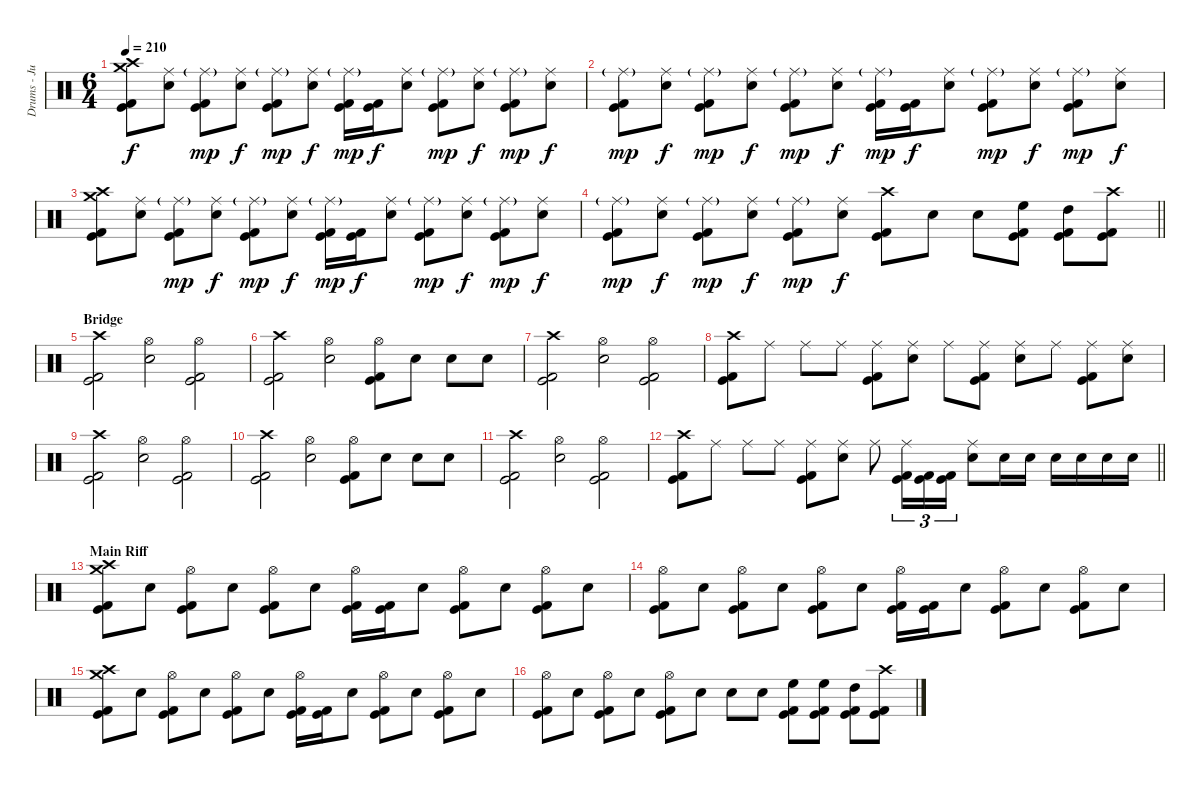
\track ("Drums - Justin Foley" "Drums - Ju") {instrument percussion}
\staff {score}
\articulation defaults
\ts (6 4)
\tempo 210
\clef neutral
\ks c
("Crash high (hit)" "Kick (hit) 2" "Kick (hit)" "Crash medium (hit)").8{dy f} ("Ride (middle)" "Snare (hit) 2").8 ("Ride (middle)"{g} "Kick (hit) 2" "Kick (hit)").8{dy mp} ("Ride (middle)" "Snare (hit) 2").8{dy f} ("Ride (middle)"{g} "Kick (hit) 2" "Kick (hit)").8{dy mp} ("Ride (middle)" "Snare (hit) 2").8{dy f} ("Ride (middle)"{g} "Kick (hit) 2" "Kick (hit)").16{dy mp} ("Kick (hit) 2" "Kick (hit)").16{dy f} ("Ride (middle)" "Snare (hit) 2").8 ("Ride (middle)"{g} "Kick (hit) 2" "Kick (hit)").8{dy mp} ("Ride (middle)" "Snare (hit) 2").8{dy f} ("Ride (middle)"{g} "Kick (hit) 2" "Kick (hit)").8{dy mp} ("Ride (middle)" "Snare (hit) 2").8{dy f} |
("Ride (middle)"{g} "Kick (hit) 2" "Kick (hit)").8{dy mp} ("Ride (middle)" "Snare (hit) 2").8{dy f} ("Ride (middle)"{g} "Kick (hit) 2" "Kick (hit)").8{dy mp} ("Ride (middle)" "Snare (hit) 2").8{dy f} ("Ride (middle)"{g} "Kick (hit) 2" "Kick (hit)").8{dy mp} ("Ride (middle)" "Snare (hit) 2").8{dy f} ("Ride (middle)"{g} "Kick (hit) 2" "Kick (hit)").16{dy mp} ("Kick (hit) 2" "Kick (hit)").16{dy f} ("Ride (middle)" "Snare (hit) 2").8 ("Ride (middle)"{g} "Kick (hit) 2" "Kick (hit)").8{dy mp} ("Ride (middle)" "Snare (hit) 2").8{dy f} ("Ride (middle)"{g} "Kick (hit) 2" "Kick (hit)").8{dy mp} ("Ride (middle)" "Snare (hit) 2").8{dy f} |
("Crash high (hit)" "Kick (hit) 2" "Kick (hit)" "Crash medium (hit)").8 ("Ride (middle)" "Snare (hit) 2").8 ("Ride (middle)"{g} "Kick (hit) 2" "Kick (hit)").8{dy mp} ("Ride (middle)" "Snare (hit) 2").8{dy f} ("Ride (middle)"{g} "Kick (hit) 2" "Kick (hit)").8{dy mp} ("Ride (middle)" "Snare (hit) 2").8{dy f} ("Ride (middle)"{g} "Kick (hit) 2" "Kick (hit)").16{dy mp} ("Kick (hit) 2" "Kick (hit)").16{dy f} ("Ride (middle)" "Snare (hit) 2").8 ("Ride (middle)"{g} "Kick (hit) 2" "Kick (hit)").8{dy mp} ("Ride (middle)" "Snare (hit) 2").8{dy f} ("Ride (middle)"{g} "Kick (hit) 2" "Kick (hit)").8{dy mp} ("Ride (middle)" "Snare (hit) 2").8{dy f} |
\barLineRight lightlight
("Ride (middle)"{g} "Kick (hit) 2" "Kick (hit)").8{dy mp} ("Ride (middle)" "Snare (hit) 2").8{dy f} ("Ride (middle)"{g} "Kick (hit) 2" "Kick (hit)").8{dy mp} ("Ride (middle)" "Snare (hit) 2").8{dy f} ("Ride (middle)"{g} "Kick (hit) 2" "Kick (hit)").8{dy mp} ("Ride (middle)" "Snare (hit) 2").8{dy f} ("Crash high (hit)" "Kick (hit) 2" "Kick (hit)").8 "Snare (hit) 2".8 "Snare (hit) 2".8 ("High Floor Tom (hit)" "Kick (hit) 2" "Kick (hit)").8 ("High Tom (hit)" "Kick (hit) 2" "Kick (hit)").8 ("Crash high (hit)" "Kick (hit) 2" "Kick (hit)").8 |
\section ("" "Bridge")
("Crash high (hit)" "Kick (hit) 2" "Kick (hit)").2 ("Hi-Hat (open)" "Snare (hit) 2").2 ("Hi-Hat (open)" "Kick (hit) 2" "Kick (hit)").2 |
("Crash high (hit)" "Kick (hit) 2" "Kick (hit)").2 ("Hi-Hat (open)" "Snare (hit) 2").2 ("Hi-Hat (open)" "Kick (hit) 2" "Kick (hit)").8 "Snare (hit) 2".8 "Snare (hit) 2".8 "Snare (hit) 2".8 |
("Crash high (hit)" "Kick (hit) 2" "Kick (hit)").2 ("Hi-Hat (open)" "Snare (hit) 2").2 ("Hi-Hat (open)" "Kick (hit) 2" "Kick (hit)").2 |
("Crash high (hit)" "Kick (hit) 2" "Kick (hit)").8 "Ride (middle)".8 "Ride (middle)".8 "Ride (middle)".8 ("Ride (middle)" "Kick (hit) 2" "Kick (hit)").8 ("Ride (middle)" "Snare (hit) 2").8 "Ride (middle)".8 ("Ride (middle)" "Kick (hit) 2" "Kick (hit)").8 ("Ride (middle)" "Snare (hit) 2").8 "Ride (middle)".8 ("Ride (middle)" "Kick (hit) 2" "Kick (hit)").8 ("Ride (middle)" "Snare (hit) 2").8 |
("Crash high (hit)" "Kick (hit) 2" "Kick (hit)").2 ("Hi-Hat (open)" "Snare (hit) 2").2 ("Hi-Hat (open)" "Kick (hit) 2" "Kick (hit)").2 |
("Crash high (hit)" "Kick (hit) 2" "Kick (hit)").2 ("Hi-Hat (open)" "Snare (hit) 2").2 ("Hi-Hat (open)" "Kick (hit) 2" "Kick (hit)").8 "Snare (hit) 2".8 "Snare (hit) 2".8 "Snare (hit) 2".8 |
("Crash high (hit)" "Kick (hit) 2" "Kick (hit)").2 ("Hi-Hat (open)" "Snare (hit) 2").2 ("Hi-Hat (open)" "Kick (hit) 2" "Kick (hit)").2 |
\barLineRight lightlight
("Crash high (hit)" "Kick (hit) 2" "Kick (hit)").8 "Ride (middle)".8 "Ride (middle)".8 "Ride (middle)".8 ("Ride (middle)" "Kick (hit) 2" "Kick (hit)").8 ("Ride (middle)" "Snare (hit) 2").8 "Ride (middle)".8 ("Ride (middle)" "Kick (hit) 2" "Kick (hit)").16{tu (3 2)} ("Kick (hit) 2" "Kick (hit)").16{tu (3 2)} ("Kick (hit) 2" "Kick (hit)").16{tu (3 2)} ("Ride (middle)" "Snare (hit) 2").8 "Snare (hit) 2".16 "Snare (hit) 2".16 "Snare (hit) 2".16 "Snare (hit) 2".16 "Snare (hit) 2".16 "Snare (hit) 2".16 |
\section ("" "Main Riff")
("Crash high (hit)" "Kick (hit) 2" "Kick (hit)" "Crash medium (hit)").8 "Snare (hit) 2".8 ("Hi-Hat (open)" "Kick (hit) 2" "Kick (hit)").8 "Snare (hit) 2".8 ("Hi-Hat (open)" "Kick (hit) 2" "Kick (hit)").8 "Snare (hit) 2".8 ("Hi-Hat (open)" "Kick (hit) 2" "Kick (hit)").16 ("Kick (hit) 2" "Kick (hit)").16 "Snare (hit) 2".8 ("Hi-Hat (open)" "Kick (hit) 2" "Kick (hit)").8 "Snare (hit) 2".8 ("Hi-Hat (open)" "Kick (hit) 2" "Kick (hit)").8 "Snare (hit) 2".8 |
("Hi-Hat (open)" "Kick (hit) 2" "Kick (hit)").8 "Snare (hit) 2".8 ("Hi-Hat (open)" "Kick (hit) 2" "Kick (hit)").8 "Snare (hit) 2".8 ("Hi-Hat (open)" "Kick (hit) 2" "Kick (hit)").8 "Snare (hit) 2".8 ("Hi-Hat (open)" "Kick (hit) 2" "Kick (hit)").16 ("Kick (hit) 2" "Kick (hit)").16 "Snare (hit) 2".8 ("Hi-Hat (open)" "Kick (hit) 2" "Kick (hit)").8 "Snare (hit) 2".8 ("Hi-Hat (open)" "Kick (hit) 2" "Kick (hit)").8 "Snare (hit) 2".8 |
("Crash high (hit)" "Kick (hit) 2" "Kick (hit)" "Crash medium (hit)").8 "Snare (hit) 2".8 ("Hi-Hat (open)" "Kick (hit) 2" "Kick (hit)").8 "Snare (hit) 2".8 ("Hi-Hat (open)" "Kick (hit) 2" "Kick (hit)").8 "Snare (hit) 2".8 ("Hi-Hat (open)" "Kick (hit) 2" "Kick (hit)").16 ("Kick (hit) 2" "Kick (hit)").16 "Snare (hit) 2".8 ("Hi-Hat (open)" "Kick (hit) 2" "Kick (hit)").8 "Snare (hit) 2".8 ("Hi-Hat (open)" "Kick (hit) 2" "Kick (hit)").8 "Snare (hit) 2".8 |
("Hi-Hat (open)" "Kick (hit) 2" "Kick (hit)").8 "Snare (hit) 2".8 ("Hi-Hat (open)" "Kick (hit) 2" "Kick (hit)").8 "Snare (hit) 2".8 ("Hi-Hat (open)" "Kick (hit) 2" "Kick (hit)").8 "Snare (hit) 2".8 "Snare (hit) 2".8 "Snare (hit) 2".8 ("High Floor Tom (hit)" "Kick (hit) 2" "Kick (hit)").8 ("High Floor Tom (hit)" "Kick (hit) 2" "Kick (hit)").8 ("High Tom (hit)" "Kick (hit) 2" "Kick (hit)").8 ("Crash high (hit)" "Kick (hit) 2" "Kick (hit)").8
